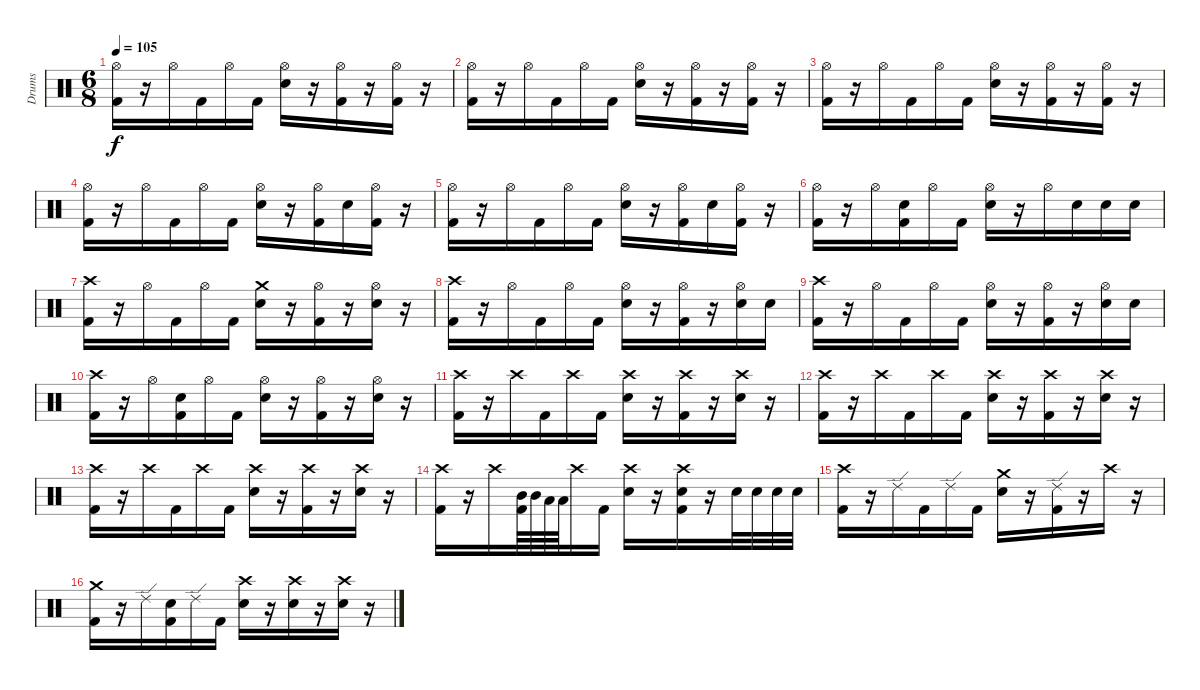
\track ("Drums" "Drums") {instrument percussion}
\staff {score}
\articulation defaults
\ts (6 8)
\tempo 105
\clef neutral
\ks c
("Hi-Hat (open)" "Kick (hit) 2").16{dy f} r.16 "Hi-Hat (open)".16 "Kick (hit) 2".16 "Hi-Hat (open)".16 "Kick (hit) 2".16 ("Hi-Hat (open)" "Electric Snare (hit)").16 r.16 ("Hi-Hat (open)" "Kick (hit) 2").16 r.16 ("Hi-Hat (open)" "Kick (hit) 2").16 r.16 |
("Hi-Hat (open)" "Kick (hit) 2").16 r.16 "Hi-Hat (open)".16 "Kick (hit) 2".16 "Hi-Hat (open)".16 "Kick (hit) 2".16 ("Hi-Hat (open)" "Electric Snare (hit)").16 r.16 ("Hi-Hat (open)" "Kick (hit) 2").16 r.16 ("Hi-Hat (open)" "Kick (hit) 2").16 r.16 |
("Hi-Hat (open)" "Kick (hit) 2").16 r.16 "Hi-Hat (open)".16 "Kick (hit) 2".16 "Hi-Hat (open)".16 "Kick (hit) 2".16 ("Hi-Hat (open)" "Electric Snare (hit)").16 r.16 ("Hi-Hat (open)" "Kick (hit) 2").16 r.16 ("Hi-Hat (open)" "Kick (hit) 2").16 r.16 |
("Hi-Hat (open)" "Kick (hit) 2").16 r.16 "Hi-Hat (open)".16 "Kick (hit) 2".16 "Hi-Hat (open)".16 "Kick (hit) 2".16 ("Hi-Hat (open)" "Electric Snare (hit)").16 r.16 ("Hi-Hat (open)" "Kick (hit) 2").16 "Electric Snare (hit)".16 ("Hi-Hat (open)" "Kick (hit) 2").16 r.16 |
("Hi-Hat (open)" "Kick (hit) 2").16 r.16 "Hi-Hat (open)".16 "Kick (hit) 2".16 "Hi-Hat (open)".16 "Kick (hit) 2".16 ("Hi-Hat (open)" "Electric Snare (hit)").16 r.16 ("Hi-Hat (open)" "Kick (hit) 2").16 "Electric Snare (hit)".16 ("Hi-Hat (open)" "Kick (hit) 2").16 r.16 |
("Hi-Hat (open)" "Kick (hit) 2").16 r.16 "Hi-Hat (open)".16 ("Electric Snare (hit)" "Kick (hit) 2").16 "Hi-Hat (open)".16 "Kick (hit) 2".16 ("Hi-Hat (open)" "Electric Snare (hit)").16 r.16 "Hi-Hat (open)".16 "Electric Snare (hit)".16 "Electric Snare (hit)".16 "Electric Snare (hit)".16 |
("Crash high (hit)" "Kick (hit) 2").16 r.16 "Hi-Hat (open)".16 "Kick (hit) 2".16 "Hi-Hat (open)".16 "Kick (hit) 2".16 ("Crash medium (hit)" "Electric Snare (hit)").16 r.16 ("Hi-Hat (open)" "Kick (hit) 2").16 r.16 ("Hi-Hat (open)" "Electric Snare (hit)").16 r.16 |
("Crash high (hit)" "Kick (hit) 2").16 r.16 "Hi-Hat (open)".16 "Kick (hit) 2".16 "Hi-Hat (open)".16 "Kick (hit) 2".16 ("Hi-Hat (open)" "Electric Snare (hit)").16 r.16 ("Hi-Hat (open)" "Kick (hit) 2").16 r.16 ("Hi-Hat (open)" "Electric Snare (hit)").16 "Electric Snare (hit)".16 |
("Crash high (hit)" "Kick (hit) 2").16 r.16 "Hi-Hat (open)".16 "Kick (hit) 2".16 "Hi-Hat (open)".16 "Kick (hit) 2".16 ("Hi-Hat (open)" "Electric Snare (hit)").16 r.16 ("Hi-Hat (open)" "Kick (hit) 2").16 r.16 ("Hi-Hat (open)" "Electric Snare (hit)").16 "Electric Snare (hit)".16 |
("Crash high (hit)" "Kick (hit) 2").16 r.16 "Hi-Hat (open)".16 ("Electric Snare (hit)" "Kick (hit) 2").16 "Hi-Hat (open)".16 "Kick (hit) 2".16 ("Hi-Hat (open)" "Electric Snare (hit)").16 r.16 ("Hi-Hat (open)" "Kick (hit) 2").16 r.16 ("Hi-Hat (open)" "Electric Snare (hit)").16 r.16 |
("Crash high (hit)" "Kick (hit) 2").16 r.16 "Crash high (hit)".16 "Kick (hit) 2".16 "Crash high (hit)".16 "Kick (hit) 2".16 ("Crash high (hit)" "Electric Snare (hit)").16 r.16 ("Crash high (hit)" "Kick (hit) 2").16 r.16 ("Crash high (hit)" "Electric Snare (hit)").16 r.16 |
("Crash high (hit)" "Kick (hit) 2").16 r.16 "Crash high (hit)".16 "Kick (hit) 2".16 "Crash high (hit)".16 "Kick (hit) 2".16 ("Crash high (hit)" "Electric Snare (hit)").16 r.16 ("Crash high (hit)" "Kick (hit) 2").16 r.16 ("Crash high (hit)" "Electric Snare (hit)").16 r.16 |
("Crash high (hit)" "Kick (hit) 2").16 r.16 "Crash high (hit)".16 "Kick (hit) 2".16 "Crash high (hit)".16 "Kick (hit) 2".16 ("Crash high (hit)" "Electric Snare (hit)").16 r.16 ("Crash high (hit)" "Kick (hit) 2").16 r.16 ("Crash high (hit)" "Electric Snare (hit)").16 r.16 |
("Crash high (hit)" "Kick (hit) 2").16 r.16 "Crash high (hit)".16 ("Mid Tom (hit)" "Kick (hit) 2").64 "Mid Tom (hit)".64 "Low Tom (hit)".64 "Low Tom (hit)".64 "Crash high (hit)".16 "Kick (hit) 2".16 ("Crash high (hit)" "Electric Snare (hit)").16 r.16 ("Crash high (hit)" "Electric Snare (hit)" "Kick (hit) 2").16 r.16 "Electric Snare (hit)".32 "Electric Snare (hit)".32 "Electric Snare (hit)".32 "Electric Snare (hit)".32 |
("Crash high (hit)" "Kick (hit) 2").16 r.16 "Ride (edge) 2".16 "Kick (hit) 2".16 "Ride (edge) 2".16 "Kick (hit) 2".16 ("Crash medium (hit)" "Electric Snare (hit)").16 r.16 ("Ride (edge) 2" "Kick (hit) 2").16 r.16 "Crash high (hit)".16 r.16 |
("Crash medium (hit)" "Kick (hit) 2").16 r.16 "Ride (edge) 2".16 ("Electric Snare (hit)" "Kick (hit) 2").16 "Ride (edge) 2".16 "Kick (hit) 2".16 ("Crash high (hit)" "Electric Snare (hit)").16 r.16 ("Crash high (hit)" "Electric Snare (hit)").16 r.16 ("Crash high (hit)" "Electric Snare (hit)").16 r.16
